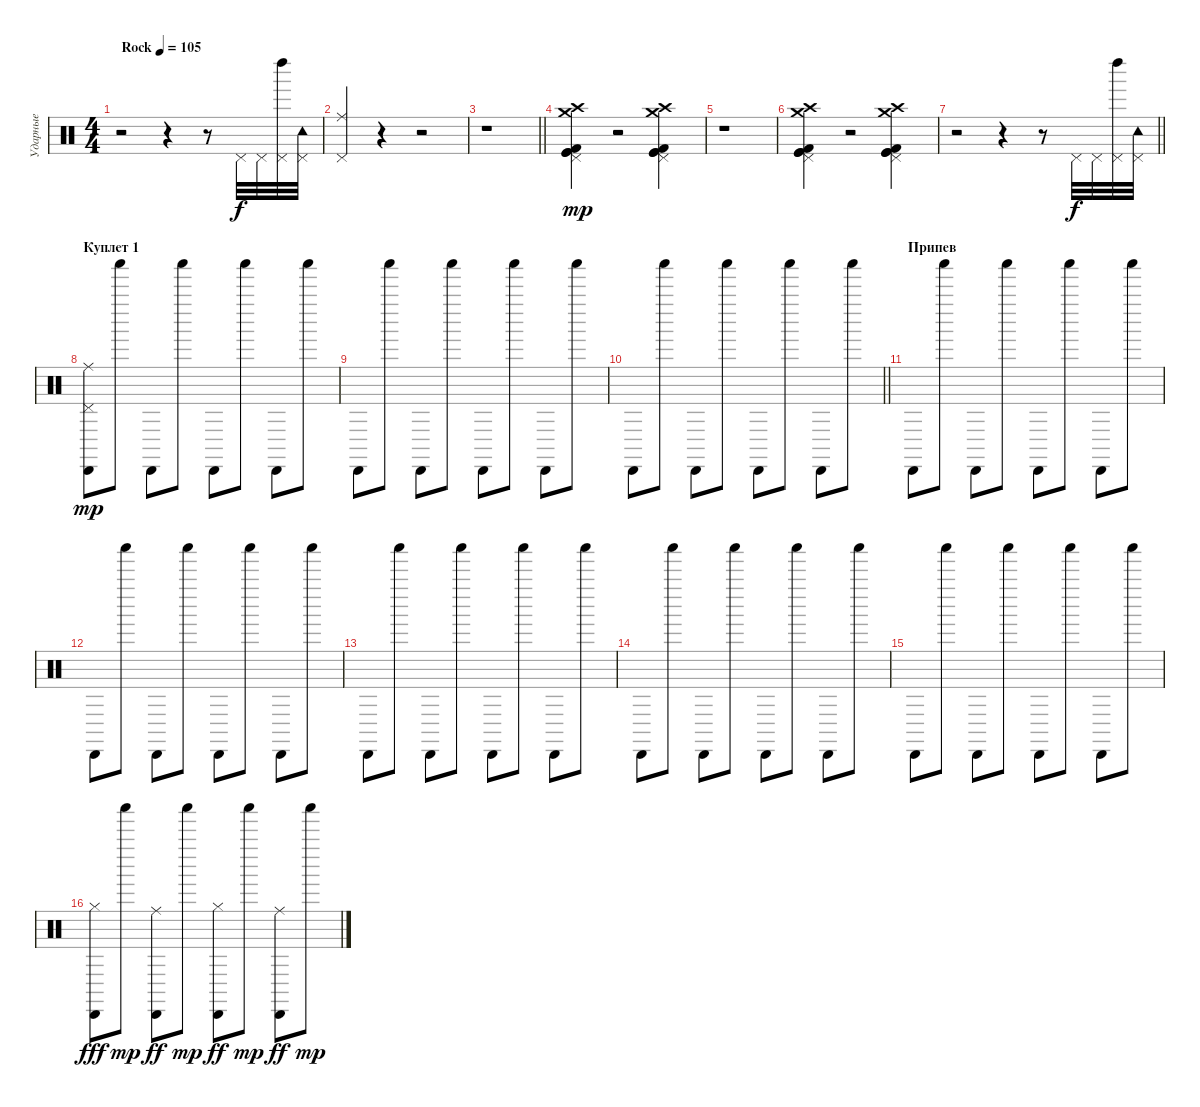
\track ("Ударные" "Ударные") {instrument percussion}
\staff {score}
\articulation defaults
\ts (4 4)
\tempo (105 "Rock")
\tempo 999
\tempo (105 "Rock")
\clef neutral
\ks c
r.2{dy f} r.4 r.8 "Pedal Hi-Hat (hit)".32 "Pedal Hi-Hat (hit)".32 ("Pedal Hi-Hat (hit)" "Left Maraca (hit)").32 ("Pedal Hi-Hat (hit)" "Tambourine (hit)").32 |
("Pedal Hi-Hat (hit)" "Ride (middle)").4 r.4 r.2 |
\barLineRight lightlight
r.1 |
("Kick (hit) 2" "Kick (hit)" "Pedal Hi-Hat (hit)" "Kick (hit)" "Crash medium (hit)" "Crash high (hit)").4{dy mp} r.2 ("Kick (hit) 2" "Kick (hit)" "Pedal Hi-Hat (hit)" "Kick (hit)" "Crash medium (hit)" "Crash high (hit)").4 |
r.1 |
("Kick (hit) 2" "Kick (hit)" "Pedal Hi-Hat (hit)" "Kick (hit)" "Crash medium (hit)" "Crash high (hit)").4 r.2 ("Kick (hit) 2" "Kick (hit)" "Pedal Hi-Hat (hit)" "Kick (hit)" "Crash medium (hit)" "Crash high (hit)").4 |
\barLineRight lightlight
r.2 r.4 r.8 "Pedal Hi-Hat (hit)".32{dy f} "Pedal Hi-Hat (hit)".32 ("Pedal Hi-Hat (hit)" "Left Maraca (hit)").32 ("Pedal Hi-Hat (hit)" "Tambourine (hit)").32 |
\section ("" "Куплет 1")
("Pedal Hi-Hat (hit)" "Ride (middle)" "Cabasa (hit)").8{dy mp} "Shaker (hit)".8 "Cabasa (hit)".8 "Shaker (hit)".8 "Cabasa (hit)".8 "Shaker (hit)".8 "Cabasa (hit)".8 "Shaker (hit)".8 |
"Cabasa (hit)".8 "Shaker (hit)".8 "Cabasa (hit)".8 "Shaker (hit)".8 "Cabasa (hit)".8 "Shaker (hit)".8 "Cabasa (hit)".8 "Shaker (hit)".8 |
\barLineRight lightlight "Cabasa (hit)".8 "Shaker (hit)".8 "Cabasa (hit)".8 "Shaker (hit)".8 "Cabasa (hit)".8 "Shaker (hit)".8 "Cabasa (hit)".8 "Shaker (hit)".8
|
\section ("" "Припев")
"Cabasa (hit)".8 "Shaker (hit)".8 "Cabasa (hit)".8 "Shaker (hit)".8 "Cabasa (hit)".8 "Shaker (hit)".8 "Cabasa (hit)".8 "Shaker (hit)".8 |
"Cabasa (hit)".8 "Shaker (hit)".8 "Cabasa (hit)".8 "Shaker (hit)".8 "Cabasa (hit)".8 "Shaker (hit)".8 "Cabasa (hit)".8 "Shaker (hit)".8 |
"Cabasa (hit)".8 "Shaker (hit)".8 "Cabasa (hit)".8 "Shaker (hit)".8 "Cabasa (hit)".8 "Shaker (hit)".8 "Cabasa (hit)".8 "Shaker (hit)".8 |
"Cabasa (hit)".8 "Shaker (hit)".8 "Cabasa (hit)".8 "Shaker (hit)".8 "Cabasa (hit)".8 "Shaker (hit)".8 "Cabasa (hit)".8 "Shaker (hit)".8 |
"Cabasa (hit)".8 "Shaker (hit)".8 "Cabasa (hit)".8 "Shaker (hit)".8 "Cabasa (hit)".8 "Shaker (hit)".8 "Cabasa (hit)".8 "Shaker (hit)".8 |
("Cabasa (hit)" "Hi-Hat (closed)").8{dy fff} "Shaker (hit)".8{dy mp} ("Cabasa (hit)" "Ride (middle)").8{dy ff} "Shaker (hit)".8{dy mp} ("Cabasa (hit)" "Hi-Hat (closed)").8{dy ff} "Shaker (hit)".8{dy mp} ("Cabasa (hit)" "Ride (middle)").8{dy ff} "Shaker (hit)".8{dy mp}
